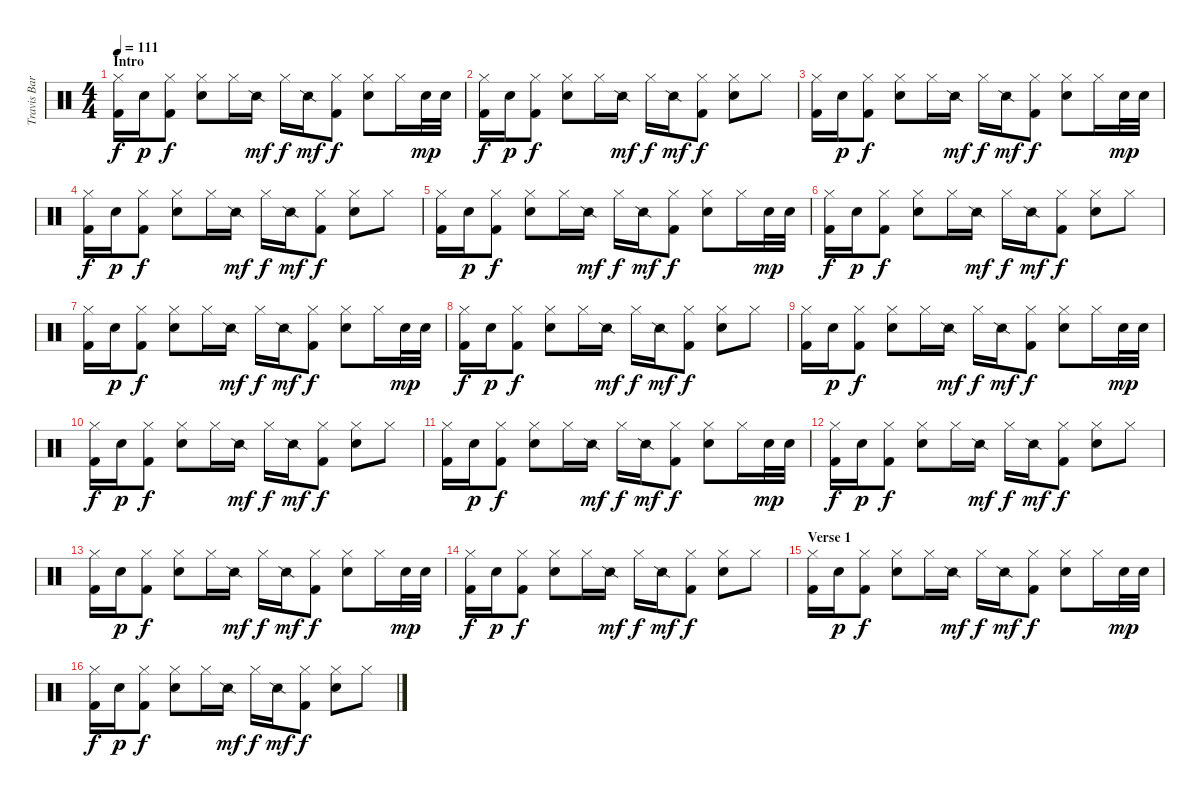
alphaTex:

\track ("Travis Barker - Drums" "Travis Bar") {instrument percussion}
\staff {score}
\articulation defaults
\ts (4 4)
\section ("" "Intro")
\tempo 111
\clef neutral
\ks c
("Hi-Hat (closed)" "Kick (hit) 2").16{dy f} "Electric Snare (hit)".16{dy p} ("Hi-Hat (closed)" "Kick (hit) 2").8{dy f} ("Hi-Hat (closed)" "Electric Snare (hit)").8 "Hi-Hat (closed)".16 "Snare (side stick) 2".16{dy mf} "Hi-Hat (closed)".16{dy f} "Snare (side stick) 2".16{dy mf} ("Hi-Hat (closed)" "Kick (hit) 2").8{dy f} ("Hi-Hat (closed)" "Electric Snare (hit)").8 "Hi-Hat (closed)".16 "Electric Snare (hit)".32{dy mp} "Electric Snare (hit)".32 |
("Hi-Hat (closed)" "Kick (hit) 2").16{dy f} "Electric Snare (hit)".16{dy p} ("Hi-Hat (closed)" "Kick (hit) 2").8{dy f} ("Hi-Hat (closed)" "Electric Snare (hit)").8 "Hi-Hat (closed)".16 "Snare (side stick) 2".16{dy mf} "Hi-Hat (closed)".16{dy f} "Snare (side stick) 2".16{dy mf} ("Hi-Hat (closed)" "Kick (hit) 2").8{dy f} ("Hi-Hat (closed)" "Electric Snare (hit)").8 "Hi-Hat (closed)".8 |
("Hi-Hat (closed)" "Kick (hit) 2").16 "Electric Snare (hit)".16{dy p} ("Hi-Hat (closed)" "Kick (hit) 2").8{dy f} ("Hi-Hat (closed)" "Electric Snare (hit)").8 "Hi-Hat (closed)".16 "Snare (side stick) 2".16{dy mf} "Hi-Hat (closed)".16{dy f} "Snare (side stick) 2".16{dy mf} ("Hi-Hat (closed)" "Kick (hit) 2").8{dy f} ("Hi-Hat (closed)" "Electric Snare (hit)").8 "Hi-Hat (closed)".16 "Electric Snare (hit)".32{dy mp} "Electric Snare (hit)".32 |
("Hi-Hat (closed)" "Kick (hit) 2").16{dy f} "Electric Snare (hit)".16{dy p} ("Hi-Hat (closed)" "Kick (hit) 2").8{dy f} ("Hi-Hat (closed)" "Electric Snare (hit)").8 "Hi-Hat (closed)".16 "Snare (side stick) 2".16{dy mf} "Hi-Hat (closed)".16{dy f} "Snare (side stick) 2".16{dy mf} ("Hi-Hat (closed)" "Kick (hit) 2").8{dy f} ("Hi-Hat (closed)" "Electric Snare (hit)").8 "Hi-Hat (closed)".8 |
("Hi-Hat (closed)" "Kick (hit) 2").16 "Electric Snare (hit)".16{dy p} ("Hi-Hat (closed)" "Kick (hit) 2").8{dy f} ("Hi-Hat (closed)" "Electric Snare (hit)").8 "Hi-Hat (closed)".16 "Snare (side stick) 2".16{dy mf} "Hi-Hat (closed)".16{dy f} "Snare (side stick) 2".16{dy mf} ("Hi-Hat (closed)" "Kick (hit) 2").8{dy f} ("Hi-Hat (closed)" "Electric Snare (hit)").8 "Hi-Hat (closed)".16 "Electric Snare (hit)".32{dy mp} "Electric Snare (hit)".32 |
("Hi-Hat (closed)" "Kick (hit) 2").16{dy f} "Electric Snare (hit)".16{dy p} ("Hi-Hat (closed)" "Kick (hit) 2").8{dy f} ("Hi-Hat (closed)" "Electric Snare (hit)").8 "Hi-Hat (closed)".16 "Snare (side stick) 2".16{dy mf} "Hi-Hat (closed)".16{dy f} "Snare (side stick) 2".16{dy mf} ("Hi-Hat (closed)" "Kick (hit) 2").8{dy f} ("Hi-Hat (closed)" "Electric Snare (hit)").8 "Hi-Hat (closed)".8 |
("Hi-Hat (closed)" "Kick (hit) 2").16 "Electric Snare (hit)".16{dy p} ("Hi-Hat (closed)" "Kick (hit) 2").8{dy f} ("Hi-Hat (closed)" "Electric Snare (hit)").8 "Hi-Hat (closed)".16 "Snare (side stick) 2".16{dy mf} "Hi-Hat (closed)".16{dy f} "Snare (side stick) 2".16{dy mf} ("Hi-Hat (closed)" "Kick (hit) 2").8{dy f} ("Hi-Hat (closed)" "Electric Snare (hit)").8 "Hi-Hat (closed)".16 "Electric Snare (hit)".32{dy mp} "Electric Snare (hit)".32 |
("Hi-Hat (closed)" "Kick (hit) 2").16{dy f} "Electric Snare (hit)".16{dy p} ("Hi-Hat (closed)" "Kick (hit) 2").8{dy f} ("Hi-Hat (closed)" "Electric Snare (hit)").8 "Hi-Hat (closed)".16 "Snare (side stick) 2".16{dy mf} "Hi-Hat (closed)".16{dy f} "Snare (side stick) 2".16{dy mf} ("Hi-Hat (closed)" "Kick (hit) 2").8{dy f} ("Hi-Hat (closed)" "Electric Snare (hit)").8 "Hi-Hat (closed)".8 |
("Hi-Hat (closed)" "Kick (hit) 2").16 "Electric Snare (hit)".16{dy p} ("Hi-Hat (closed)" "Kick (hit) 2").8{dy f} ("Hi-Hat (closed)" "Electric Snare (hit)").8 "Hi-Hat (closed)".16 "Snare (side stick) 2".16{dy mf} "Hi-Hat (closed)".16{dy f} "Snare (side stick) 2".16{dy mf} ("Hi-Hat (closed)" "Kick (hit) 2").8{dy f} ("Hi-Hat (closed)" "Electric Snare (hit)").8 "Hi-Hat (closed)".16 "Electric Snare (hit)".32{dy mp} "Electric Snare (hit)".32 |
("Hi-Hat (closed)" "Kick (hit) 2").16{dy f} "Electric Snare (hit)".16{dy p} ("Hi-Hat (closed)" "Kick (hit) 2").8{dy f} ("Hi-Hat (closed)" "Electric Snare (hit)").8 "Hi-Hat (closed)".16 "Snare (side stick) 2".16{dy mf} "Hi-Hat (closed)".16{dy f} "Snare (side stick) 2".16{dy mf} ("Hi-Hat (closed)" "Kick (hit) 2").8{dy f} ("Hi-Hat (closed)" "Electric Snare (hit)").8 "Hi-Hat (closed)".8 |
("Hi-Hat (closed)" "Kick (hit) 2").16 "Electric Snare (hit)".16{dy p} ("Hi-Hat (closed)" "Kick (hit) 2").8{dy f} ("Hi-Hat (closed)" "Electric Snare (hit)").8 "Hi-Hat (closed)".16 "Snare (side stick) 2".16{dy mf} "Hi-Hat (closed)".16{dy f} "Snare (side stick) 2".16{dy mf} ("Hi-Hat (closed)" "Kick (hit) 2").8{dy f} ("Hi-Hat (closed)" "Electric Snare (hit)").8 "Hi-Hat (closed)".16 "Electric Snare (hit)".32{dy mp} "Electric Snare (hit)".32 |
("Hi-Hat (closed)" "Kick (hit) 2").16{dy f} "Electric Snare (hit)".16{dy p} ("Hi-Hat (closed)" "Kick (hit) 2").8{dy f} ("Hi-Hat (closed)" "Electric Snare (hit)").8 "Hi-Hat (closed)".16 "Snare (side stick) 2".16{dy mf} "Hi-Hat (closed)".16{dy f} "Snare (side stick) 2".16{dy mf} ("Hi-Hat (closed)" "Kick (hit) 2").8{dy f} ("Hi-Hat (closed)" "Electric Snare (hit)").8 "Hi-Hat (closed)".8 |
("Hi-Hat (closed)" "Kick (hit) 2").16 "Electric Snare (hit)".16{dy p} ("Hi-Hat (closed)" "Kick (hit) 2").8{dy f} ("Hi-Hat (closed)" "Electric Snare (hit)").8 "Hi-Hat (closed)".16 "Snare (side stick) 2".16{dy mf} "Hi-Hat (closed)".16{dy f} "Snare (side stick) 2".16{dy mf} ("Hi-Hat (closed)" "Kick (hit) 2").8{dy f} ("Hi-Hat (closed)" "Electric Snare (hit)").8 "Hi-Hat (closed)".16 "Electric Snare (hit)".32{dy mp} "Electric Snare (hit)".32 |
("Hi-Hat (closed)" "Kick (hit) 2").16{dy f} "Electric Snare (hit)".16{dy p} ("Hi-Hat (closed)" "Kick (hit) 2").8{dy f} ("Hi-Hat (closed)" "Electric Snare (hit)").8 "Hi-Hat (closed)".16 "Snare (side stick) 2".16{dy mf} "Hi-Hat (closed)".16{dy f} "Snare (side stick) 2".16{dy mf} ("Hi-Hat (closed)" "Kick (hit) 2").8{dy f} ("Hi-Hat (closed)" "Electric Snare (hit)").8 "Hi-Hat (closed)".8 |
\section ("" "Verse 1")
("Hi-Hat (closed)" "Kick (hit) 2").16 "Electric Snare (hit)".16{dy p} ("Hi-Hat (closed)" "Kick (hit) 2").8{dy f} ("Hi-Hat (closed)" "Electric Snare (hit)").8 "Hi-Hat (closed)".16 "Snare (side stick) 2".16{dy mf} "Hi-Hat (closed)".16{dy f} "Snare (side stick) 2".16{dy mf} ("Hi-Hat (closed)" "Kick (hit) 2").8{dy f} ("Hi-Hat (closed)" "Electric Snare (hit)").8 "Hi-Hat (closed)".16 "Electric Snare (hit)".32{dy mp} "Electric Snare (hit)".32 |
("Hi-Hat (closed)" "Kick (hit) 2").16{dy f} "Electric Snare (hit)".16{dy p} ("Hi-Hat (closed)" "Kick (hit) 2").8{dy f} ("Hi-Hat (closed)" "Electric Snare (hit)").8 "Hi-Hat (closed)".16 "Snare (side stick) 2".16{dy mf} "Hi-Hat (closed)".16{dy f} "Snare (side stick) 2".16{dy mf} ("Hi-Hat (closed)" "Kick (hit) 2").8{dy f} ("Hi-Hat (closed)" "Electric Snare (hit)").8 "Hi-Hat (closed)".8
